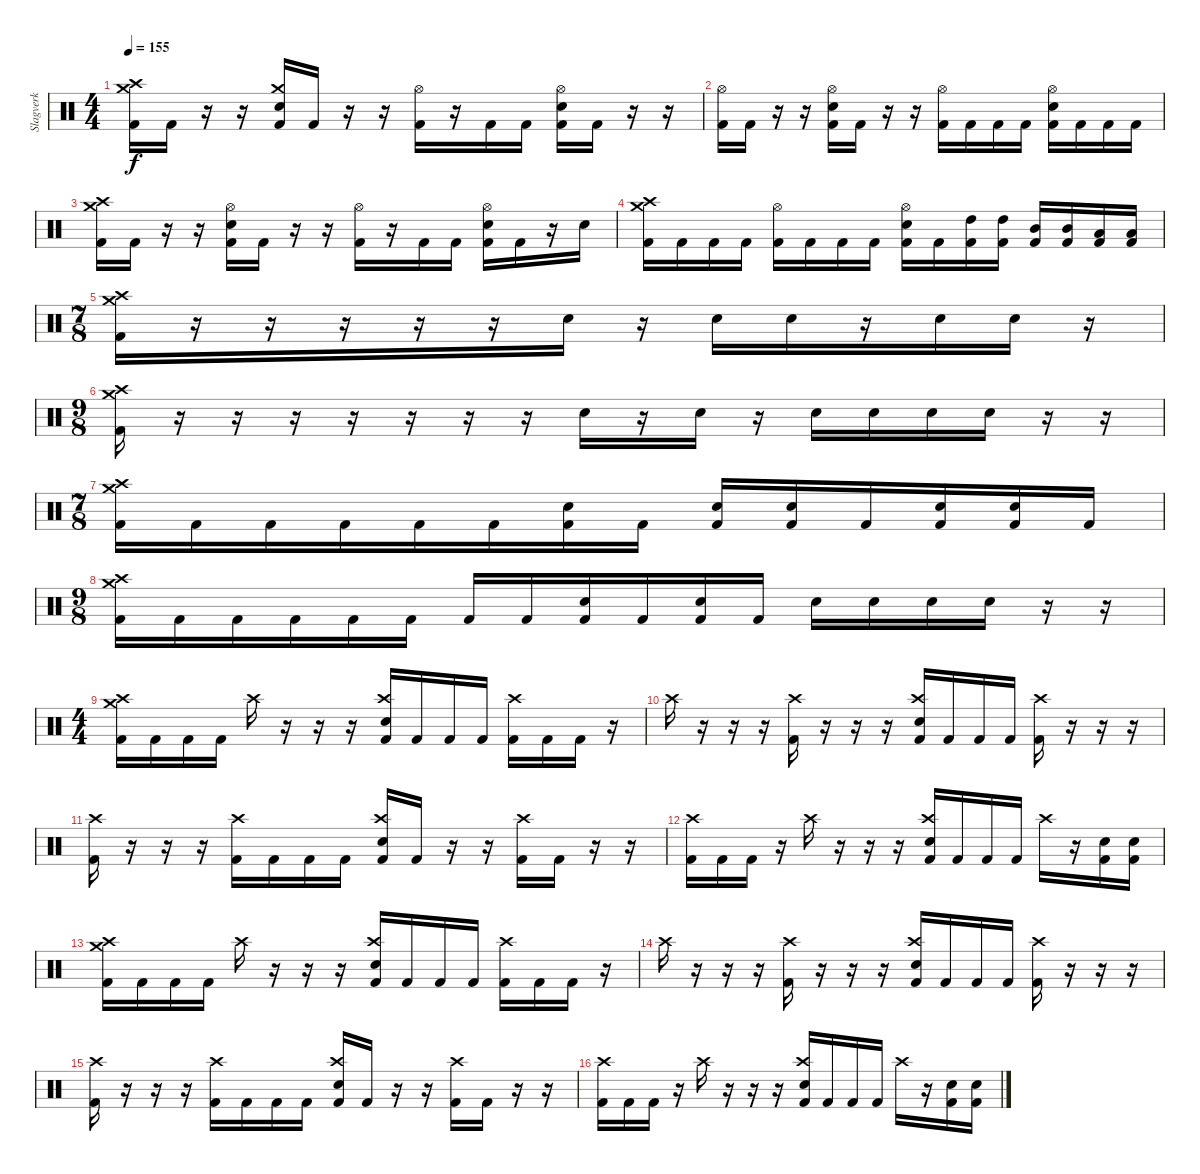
\track ("Slagverk" "Slagverk") {instrument percussion}
\staff {score}
\articulation defaults
\ts (4 4)
\tempo 155
\clef neutral
\ks c
("Kick (hit) 2" "Crash medium (hit)" "Crash high (hit)").16{dy f} "Kick (hit) 2".16 r.16 r.16 ("Kick (hit) 2" "Electric Snare (hit)" "Crash medium (hit)").16 "Kick (hit) 2".16 r.16 r.16 ("Kick (hit) 2" "Hi-Hat (open)").16 r.16 "Kick (hit) 2".16 "Kick (hit) 2".16 ("Kick (hit) 2" "Electric Snare (hit)" "Hi-Hat (open)").16 "Kick (hit) 2".16 r.16 r.16 |
("Kick (hit) 2" "Hi-Hat (open)").16 "Kick (hit) 2".16 r.16 r.16 ("Kick (hit) 2" "Electric Snare (hit)" "Hi-Hat (open)").16 "Kick (hit) 2".16 r.16 r.16 ("Kick (hit) 2" "Hi-Hat (open)").16 "Kick (hit) 2".16 "Kick (hit) 2".16 "Kick (hit) 2".16 ("Kick (hit) 2" "Electric Snare (hit)" "Hi-Hat (open)").16 "Kick (hit) 2".16 "Kick (hit) 2".16 "Kick (hit) 2".16 |
("Kick (hit) 2" "Crash medium (hit)" "Crash high (hit)").16 "Kick (hit) 2".16 r.16 r.16 ("Kick (hit) 2" "Electric Snare (hit)" "Hi-Hat (open)").16 "Kick (hit) 2".16 r.16 r.16 ("Kick (hit) 2" "Hi-Hat (open)").16 r.16 "Kick (hit) 2".16 "Kick (hit) 2".16 ("Kick (hit) 2" "Electric Snare (hit)" "Hi-Hat (open)").16 "Kick (hit) 2".16 r.16 "Electric Snare (hit)".16 |
("Kick (hit) 2" "Crash medium (hit)" "Crash high (hit)").16 "Kick (hit) 2".16 "Kick (hit) 2".16 "Kick (hit) 2".16 ("Kick (hit) 2" "Hi-Hat (open)").16 "Kick (hit) 2".16 "Kick (hit) 2".16 "Kick (hit) 2".16 ("Kick (hit) 2" "Electric Snare (hit)" "Hi-Hat (open)").16 "Kick (hit) 2".16 ("Kick (hit) 2" "High Tom (hit)").16 ("Kick (hit) 2" "High Tom (hit)").16 ("Kick (hit) 2" "Mid Tom (hit)").16 ("Kick (hit) 2" "Mid Tom (hit)").16 ("Kick (hit) 2" "Low Tom (hit)").16 ("Kick (hit) 2" "Low Tom (hit)").16 |
\ts (7 8)
("Kick (hit) 2" "Crash medium (hit)" "Crash high (hit)").16 r.16 r.16 r.16 r.16 r.16 "Electric Snare (hit)".16 r.16 "Electric Snare (hit)".16 "Electric Snare (hit)".16 r.16 "Electric Snare (hit)".16 "Electric Snare (hit)".16 r.16 |
\ts (9 8)
("Kick (hit) 2" "Crash medium (hit)" "Crash high (hit)").16 r.16 r.16 r.16 r.16 r.16 r.16 r.16 "Electric Snare (hit)".16 r.16 "Electric Snare (hit)".16 r.16 "Electric Snare (hit)".16 "Electric Snare (hit)".16 "Electric Snare (hit)".16 "Electric Snare (hit)".16 r.16 r.16 |
\ts (7 8)
("Kick (hit) 2" "Crash medium (hit)" "Crash high (hit)").16 "Kick (hit) 2".16 "Kick (hit) 2".16 "Kick (hit) 2".16 "Kick (hit) 2".16 "Kick (hit) 2".16 ("Kick (hit) 2" "Electric Snare (hit)").16 "Kick (hit) 2".16 ("Kick (hit) 2" "Electric Snare (hit)").16 ("Kick (hit) 2" "Electric Snare (hit)").16 "Kick (hit) 2".16 ("Kick (hit) 2" "Electric Snare (hit)").16 ("Kick (hit) 2" "Electric Snare (hit)").16 "Kick (hit) 2".16 |
\ts (9 8)
("Kick (hit) 2" "Crash medium (hit)" "Crash high (hit)").16 "Kick (hit) 2".16 "Kick (hit) 2".16 "Kick (hit) 2".16 "Kick (hit) 2".16 "Kick (hit) 2".16 "Kick (hit) 2".16 "Kick (hit) 2".16 ("Kick (hit) 2" "Electric Snare (hit)").16 "Kick (hit) 2".16 ("Kick (hit) 2" "Electric Snare (hit)").16 "Kick (hit) 2".16 "Electric Snare (hit)".16 "Electric Snare (hit)".16 "Electric Snare (hit)".16 "Electric Snare (hit)".16 r.16 r.16 |
\ts (4 4)
("Kick (hit) 2" "Crash high (hit)" "Crash medium (hit)").16 "Kick (hit) 2".16 "Kick (hit) 2".16 "Kick (hit) 2".16 "Crash high (hit)".16 r.16 r.16 r.16 ("Kick (hit) 2" "Electric Snare (hit)" "Crash high (hit)").16 "Kick (hit) 2".16 "Kick (hit) 2".16 "Kick (hit) 2".16 ("Kick (hit) 2" "Crash high (hit)").16 "Kick (hit) 2".16 "Kick (hit) 2".16 r.16 |
"Crash high (hit)".16 r.16 r.16 r.16 ("Kick (hit) 2" "Crash high (hit)").16 r.16 r.16 r.16 ("Kick (hit) 2" "Electric Snare (hit)" "Crash high (hit)").16 "Kick (hit) 2".16 "Kick (hit) 2".16 "Kick (hit) 2".16 ("Kick (hit) 2" "Crash high (hit)").16 r.16 r.16 r.16 |
("Kick (hit) 2" "Crash high (hit)").16 r.16 r.16 r.16 ("Kick (hit) 2" "Crash high (hit)").16 "Kick (hit) 2".16 "Kick (hit) 2".16 "Kick (hit) 2".16 ("Kick (hit) 2" "Electric Snare (hit)" "Crash high (hit)").16 "Kick (hit) 2".16 r.16 r.16 ("Kick (hit) 2" "Crash high (hit)").16 "Kick (hit) 2".16 r.16 r.16 |
("Kick (hit) 2" "Crash high (hit)").16 "Kick (hit) 2".16 "Kick (hit) 2".16 r.16 "Crash high (hit)".16 r.16 r.16 r.16 ("Kick (hit) 2" "Electric Snare (hit)" "Crash high (hit)").16 "Kick (hit) 2".16 "Kick (hit) 2".16 "Kick (hit) 2".16 "Crash high (hit)".16 r.16 ("Kick (hit) 2" "Electric Snare (hit)").16 ("Kick (hit) 2" "Electric Snare (hit)").16 |
("Kick (hit) 2" "Crash high (hit)" "Crash medium (hit)").16 "Kick (hit) 2".16 "Kick (hit) 2".16 "Kick (hit) 2".16 "Crash high (hit)".16 r.16 r.16 r.16 ("Kick (hit) 2" "Electric Snare (hit)" "Crash high (hit)").16 "Kick (hit) 2".16 "Kick (hit) 2".16 "Kick (hit) 2".16 ("Kick (hit) 2" "Crash high (hit)").16 "Kick (hit) 2".16 "Kick (hit) 2".16 r.16 |
"Crash high (hit)".16 r.16 r.16 r.16 ("Kick (hit) 2" "Crash high (hit)").16 r.16 r.16 r.16 ("Kick (hit) 2" "Electric Snare (hit)" "Crash high (hit)").16 "Kick (hit) 2".16 "Kick (hit) 2".16 "Kick (hit) 2".16 ("Kick (hit) 2" "Crash high (hit)").16 r.16 r.16 r.16 |
("Kick (hit) 2" "Crash high (hit)").16 r.16 r.16 r.16 ("Kick (hit) 2" "Crash high (hit)").16 "Kick (hit) 2".16 "Kick (hit) 2".16 "Kick (hit) 2".16 ("Kick (hit) 2" "Electric Snare (hit)" "Crash high (hit)").16 "Kick (hit) 2".16 r.16 r.16 ("Kick (hit) 2" "Crash high (hit)").16 "Kick (hit) 2".16 r.16 r.16 |
("Kick (hit) 2" "Crash high (hit)").16 "Kick (hit) 2".16 "Kick (hit) 2".16 r.16 "Crash high (hit)".16 r.16 r.16 r.16 ("Kick (hit) 2" "Electric Snare (hit)" "Crash high (hit)").16 "Kick (hit) 2".16 "Kick (hit) 2".16 "Kick (hit) 2".16 "Crash high (hit)".16 r.16 ("Kick (hit) 2" "Electric Snare (hit)").16 ("Kick (hit) 2" "Electric Snare (hit)").16
